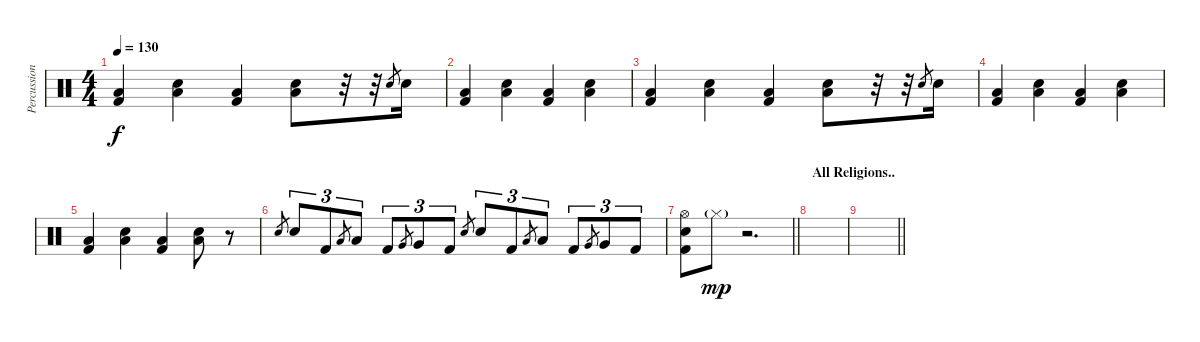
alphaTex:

\track ("Percussion" "Percussion") {instrument percussion}
\staff {score}
\articulation defaults
\ts (4 4)
\tempo 130
\clef neutral
\ks c
("Low Floor Tom (hit)" "Kick (hit) 2").4{dy f} ("Low Floor Tom (hit)" "Electric Snare (hit)").4 ("Low Floor Tom (hit)" "Kick (hit) 2").4 ("Low Floor Tom (hit)" "Electric Snare (hit)").8 r.32 r.32 "Electric Snare (hit)".8{gr} "Electric Snare (hit)".16 |
("Low Floor Tom (hit)" "Kick (hit) 2").4 ("Low Floor Tom (hit)" "Electric Snare (hit)").4 ("Low Floor Tom (hit)" "Kick (hit) 2").4 ("Low Floor Tom (hit)" "Electric Snare (hit)").4 |
("Low Floor Tom (hit)" "Kick (hit) 2").4 ("Low Floor Tom (hit)" "Electric Snare (hit)").4 ("Low Floor Tom (hit)" "Kick (hit) 2").4 ("Low Floor Tom (hit)" "Electric Snare (hit)").8 r.32 r.32 "Electric Snare (hit)".8{gr} "Electric Snare (hit)".16 |
("Low Floor Tom (hit)" "Kick (hit) 2").4 ("Low Floor Tom (hit)" "Electric Snare (hit)").4 ("Low Floor Tom (hit)" "Kick (hit) 2").4 ("Low Floor Tom (hit)" "Electric Snare (hit)").4 |
("Low Floor Tom (hit)" "Kick (hit) 2").4 ("Low Floor Tom (hit)" "Electric Snare (hit)").4 ("Low Floor Tom (hit)" "Kick (hit) 2").4 ("Low Floor Tom (hit)" "Electric Snare (hit)").8 r.8 |
"Electric Snare (hit)".8{gr} "Electric Snare (hit)".8{tu (3 2)} "Kick (hit) 2".8{tu (3 2)} "Low Tom (hit)".8{gr} "Low Tom (hit)".8{tu (3 2)} "Kick (hit) 2".8{tu (3 2)} "Very Low Tom (hit)".8{gr} "Very Low Tom (hit)".8{tu (3 2)} "Kick (hit) 2".8{tu (3 2)} "Electric Snare (hit)".8{gr} "Electric Snare (hit)".8{tu (3 2)} "Kick (hit) 2".8{tu (3 2)} "Low Tom (hit)".8{gr} "Low Tom (hit)".8{tu (3 2)} "Kick (hit) 2".8{tu (3 2)} "Very Low Tom (hit)".8{gr} "Very Low Tom (hit)".8{tu (3 2)} "Kick (hit) 2".8{tu (3 2)} |
\barLineRight lightlight
("Electric Snare (hit)" "Hi-Hat (open)" "Kick (hit) 2").8 "Hi-Hat (closed)"{g}.8{dy mp} r.2{d} |
\section ("" "All Religions..")
|
\barLineRight lightlight
